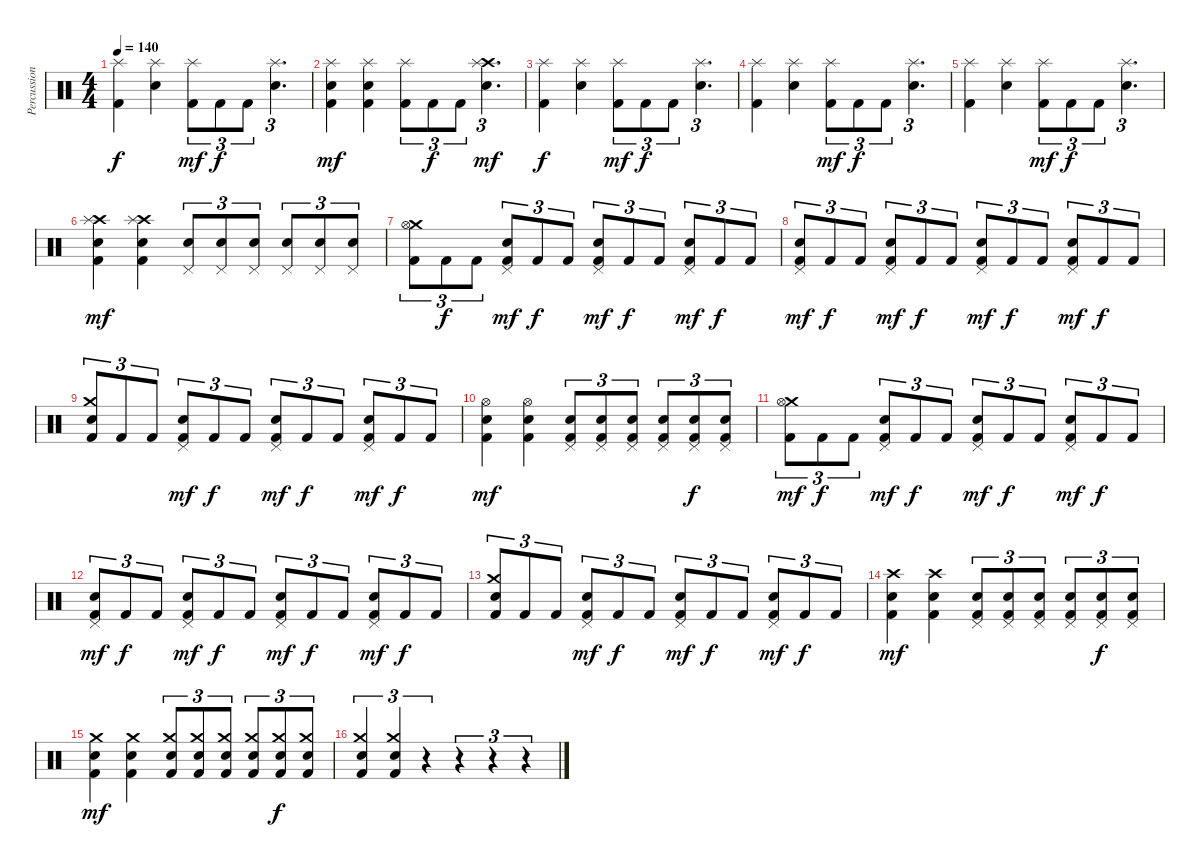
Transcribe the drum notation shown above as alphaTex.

\track ("Percussion" "Percussion") {instrument percussion}
\staff {score}
\articulation defaults
\ts (4 4)
\tempo 140
\clef neutral
\ks c
("Splash (hit)" "Kick (hit) 2").4{dy f} ("Splash (hit)" "Snare (hit) 2").4 ("Splash (hit)" "Kick (hit) 2").8{tu (3 2) dy mf} "Kick (hit) 2".8{tu (3 2) dy f} "Kick (hit) 2".8{tu (3 2)} ("Splash (hit)" "Snare (hit) 2").4{d tu (3 2)} |
("Splash (hit)" "Kick (hit) 2" "Snare (hit) 2").4{dy mf} ("Splash (hit)" "Kick (hit) 2" "Snare (hit) 2").4 ("Splash (hit)" "Kick (hit) 2").8{tu (3 2)} "Kick (hit) 2".8{tu (3 2) dy f} "Kick (hit) 2".8{tu (3 2)} ("Crash high (hit)" "Splash (hit)" "Snare (hit) 2").4{d tu (3 2) dy mf} |
("Splash (hit)" "Kick (hit) 2").4{dy f} ("Splash (hit)" "Snare (hit) 2").4 ("Splash (hit)" "Kick (hit) 2").8{tu (3 2) dy mf} "Kick (hit) 2".8{tu (3 2) dy f} "Kick (hit) 2".8{tu (3 2)} ("Splash (hit)" "Snare (hit) 2").4{d tu (3 2)} |
("Splash (hit)" "Kick (hit) 2").4 ("Splash (hit)" "Snare (hit) 2").4 ("Splash (hit)" "Kick (hit) 2").8{tu (3 2) dy mf} "Kick (hit) 2".8{tu (3 2) dy f} "Kick (hit) 2".8{tu (3 2)} ("Splash (hit)" "Snare (hit) 2").4{d tu (3 2)} |
("Splash (hit)" "Kick (hit) 2").4 ("Splash (hit)" "Snare (hit) 2").4 ("Splash (hit)" "Kick (hit) 2").8{tu (3 2) dy mf} "Kick (hit) 2".8{tu (3 2) dy f} "Kick (hit) 2".8{tu (3 2)} ("Splash (hit)" "Snare (hit) 2").4{d tu (3 2)} |
("Crash high (hit)" "Splash (hit)" "Kick (hit) 2" "Snare (hit) 2").4{dy mf} ("Crash high (hit)" "Splash (hit)" "Kick (hit) 2" "Snare (hit) 2").4 ("Snare (hit) 2" "Pedal Hi-Hat (hit)").8{tu (3 2)} ("Snare (hit) 2" "Pedal Hi-Hat (hit)").8{tu (3 2)} ("Snare (hit) 2" "Pedal Hi-Hat (hit)").8{tu (3 2)} ("Snare (hit) 2" "Pedal Hi-Hat (hit)").8{tu (3 2)} ("Snare (hit) 2" "Pedal Hi-Hat (hit)").8{tu (3 2)} ("Snare (hit) 2" "Pedal Hi-Hat (hit)").8{tu (3 2)} |
("Crash medium (hit)" "Hi-Hat (open)" "Kick (hit) 2").8{tu (3 2)} "Kick (hit) 2".8{tu (3 2) dy f} "Kick (hit) 2".8{tu (3 2)} ("Pedal Hi-Hat (hit)" "Electric Snare (hit)" "Kick (hit) 2").8{tu (3 2) dy mf} "Kick (hit) 2".8{tu (3 2) dy f} "Kick (hit) 2".8{tu (3 2)} ("Pedal Hi-Hat (hit)" "Electric Snare (hit)" "Kick (hit) 2").8{tu (3 2) dy mf} "Kick (hit) 2".8{tu (3 2) dy f} "Kick (hit) 2".8{tu (3 2)} ("Pedal Hi-Hat (hit)" "Electric Snare (hit)" "Kick (hit) 2").8{tu (3 2) dy mf} "Kick (hit) 2".8{tu (3 2) dy f} "Kick (hit) 2".8{tu (3 2)} |
("Pedal Hi-Hat (hit)" "Electric Snare (hit)" "Kick (hit) 2").8{tu (3 2) dy mf} "Kick (hit) 2".8{tu (3 2) dy f} "Kick (hit) 2".8{tu (3 2)} ("Pedal Hi-Hat (hit)" "Electric Snare (hit)" "Kick (hit) 2").8{tu (3 2) dy mf} "Kick (hit) 2".8{tu (3 2) dy f} "Kick (hit) 2".8{tu (3 2)} ("Pedal Hi-Hat (hit)" "Electric Snare (hit)" "Kick (hit) 2").8{tu (3 2) dy mf} "Kick (hit) 2".8{tu (3 2) dy f} "Kick (hit) 2".8{tu (3 2)} ("Pedal Hi-Hat (hit)" "Electric Snare (hit)" "Kick (hit) 2").8{tu (3 2) dy mf} "Kick (hit) 2".8{tu (3 2) dy f} "Kick (hit) 2".8{tu (3 2)} |
("Crash medium (hit)" "Electric Snare (hit)" "Kick (hit) 2").8{tu (3 2)} "Kick (hit) 2".8{tu (3 2)} "Kick (hit) 2".8{tu (3 2)} ("Pedal Hi-Hat (hit)" "Electric Snare (hit)" "Kick (hit) 2").8{tu (3 2) dy mf} "Kick (hit) 2".8{tu (3 2) dy f} "Kick (hit) 2".8{tu (3 2)} ("Pedal Hi-Hat (hit)" "Electric Snare (hit)" "Kick (hit) 2").8{tu (3 2) dy mf} "Kick (hit) 2".8{tu (3 2) dy f} "Kick (hit) 2".8{tu (3 2)} ("Pedal Hi-Hat (hit)" "Electric Snare (hit)" "Kick (hit) 2").8{tu (3 2) dy mf} "Kick (hit) 2".8{tu (3 2) dy f} "Kick (hit) 2".8{tu (3 2)} |
("Hi-Hat (open)" "Snare (hit) 2" "Kick (hit) 2").4{dy mf} ("Hi-Hat (open)" "Snare (hit) 2" "Kick (hit) 2").4 ("Pedal Hi-Hat (hit)" "Electric Snare (hit)" "Kick (hit) 2").8{tu (3 2)} ("Pedal Hi-Hat (hit)" "Electric Snare (hit)" "Kick (hit) 2").8{tu (3 2)} ("Pedal Hi-Hat (hit)" "Electric Snare (hit)" "Kick (hit) 2").8{tu (3 2)} ("Pedal Hi-Hat (hit)" "Electric Snare (hit)" "Kick (hit) 2").8{tu (3 2)} ("Pedal Hi-Hat (hit)" "Electric Snare (hit)" "Kick (hit) 2").8{tu (3 2) dy f} ("Pedal Hi-Hat (hit)" "Electric Snare (hit)" "Kick (hit) 2").8{tu (3 2)} |
("Crash medium (hit)" "Hi-Hat (open)" "Kick (hit) 2").8{tu (3 2) dy mf} "Kick (hit) 2".8{tu (3 2) dy f} "Kick (hit) 2".8{tu (3 2)} ("Pedal Hi-Hat (hit)" "Electric Snare (hit)" "Kick (hit) 2").8{tu (3 2) dy mf} "Kick (hit) 2".8{tu (3 2) dy f} "Kick (hit) 2".8{tu (3 2)} ("Pedal Hi-Hat (hit)" "Electric Snare (hit)" "Kick (hit) 2").8{tu (3 2) dy mf} "Kick (hit) 2".8{tu (3 2) dy f} "Kick (hit) 2".8{tu (3 2)} ("Pedal Hi-Hat (hit)" "Electric Snare (hit)" "Kick (hit) 2").8{tu (3 2) dy mf} "Kick (hit) 2".8{tu (3 2) dy f} "Kick (hit) 2".8{tu (3 2)} |
("Pedal Hi-Hat (hit)" "Electric Snare (hit)" "Kick (hit) 2").8{tu (3 2) dy mf} "Kick (hit) 2".8{tu (3 2) dy f} "Kick (hit) 2".8{tu (3 2)} ("Pedal Hi-Hat (hit)" "Electric Snare (hit)" "Kick (hit) 2").8{tu (3 2) dy mf} "Kick (hit) 2".8{tu (3 2) dy f} "Kick (hit) 2".8{tu (3 2)} ("Pedal Hi-Hat (hit)" "Electric Snare (hit)" "Kick (hit) 2").8{tu (3 2) dy mf} "Kick (hit) 2".8{tu (3 2) dy f} "Kick (hit) 2".8{tu (3 2)} ("Pedal Hi-Hat (hit)" "Electric Snare (hit)" "Kick (hit) 2").8{tu (3 2) dy mf} "Kick (hit) 2".8{tu (3 2) dy f} "Kick (hit) 2".8{tu (3 2)} |
("Crash medium (hit)" "Electric Snare (hit)" "Kick (hit) 2").8{tu (3 2)} "Kick (hit) 2".8{tu (3 2)} "Kick (hit) 2".8{tu (3 2)} ("Pedal Hi-Hat (hit)" "Electric Snare (hit)" "Kick (hit) 2").8{tu (3 2) dy mf} "Kick (hit) 2".8{tu (3 2) dy f} "Kick (hit) 2".8{tu (3 2)} ("Pedal Hi-Hat (hit)" "Electric Snare (hit)" "Kick (hit) 2").8{tu (3 2) dy mf} "Kick (hit) 2".8{tu (3 2) dy f} "Kick (hit) 2".8{tu (3 2)} ("Pedal Hi-Hat (hit)" "Electric Snare (hit)" "Kick (hit) 2").8{tu (3 2) dy mf} "Kick (hit) 2".8{tu (3 2) dy f} "Kick (hit) 2".8{tu (3 2)} |
("Crash high (hit)" "Snare (hit) 2" "Kick (hit) 2").4{dy mf} ("Crash high (hit)" "Snare (hit) 2" "Kick (hit) 2").4 ("Pedal Hi-Hat (hit)" "Electric Snare (hit)" "Kick (hit) 2").8{tu (3 2)} ("Pedal Hi-Hat (hit)" "Electric Snare (hit)" "Kick (hit) 2").8{tu (3 2)} ("Pedal Hi-Hat (hit)" "Electric Snare (hit)" "Kick (hit) 2").8{tu (3 2)} ("Pedal Hi-Hat (hit)" "Electric Snare (hit)" "Kick (hit) 2").8{tu (3 2)} ("Pedal Hi-Hat (hit)" "Electric Snare (hit)" "Kick (hit) 2").8{tu (3 2) dy f} ("Pedal Hi-Hat (hit)" "Electric Snare (hit)" "Kick (hit) 2").8{tu (3 2)} |
("Crash medium (hit)" "Snare (hit) 2" "Kick (hit) 2").4{dy mf} ("Crash medium (hit)" "Snare (hit) 2" "Kick (hit) 2").4 ("Crash medium (hit)" "Electric Snare (hit)" "Kick (hit) 2").8{tu (3 2)} ("Crash medium (hit)" "Electric Snare (hit)" "Kick (hit) 2").8{tu (3 2)} ("Crash medium (hit)" "Electric Snare (hit)" "Kick (hit) 2").8{tu (3 2)} ("Crash medium (hit)" "Electric Snare (hit)" "Kick (hit) 2").8{tu (3 2)} ("Crash medium (hit)" "Electric Snare (hit)" "Kick (hit) 2").8{tu (3 2) dy f} ("Crash medium (hit)" "Electric Snare (hit)" "Kick (hit) 2").8{tu (3 2)} |
("Crash medium (hit)" "Electric Snare (hit)" "Kick (hit) 2").4{tu (3 2)} ("Crash medium (hit)" "Electric Snare (hit)" "Kick (hit) 2").4{tu (3 2)} r.4{tu (3 2)} r.4{tu (3 2)} r.4{tu (3 2)} r.4{tu (3 2)}
